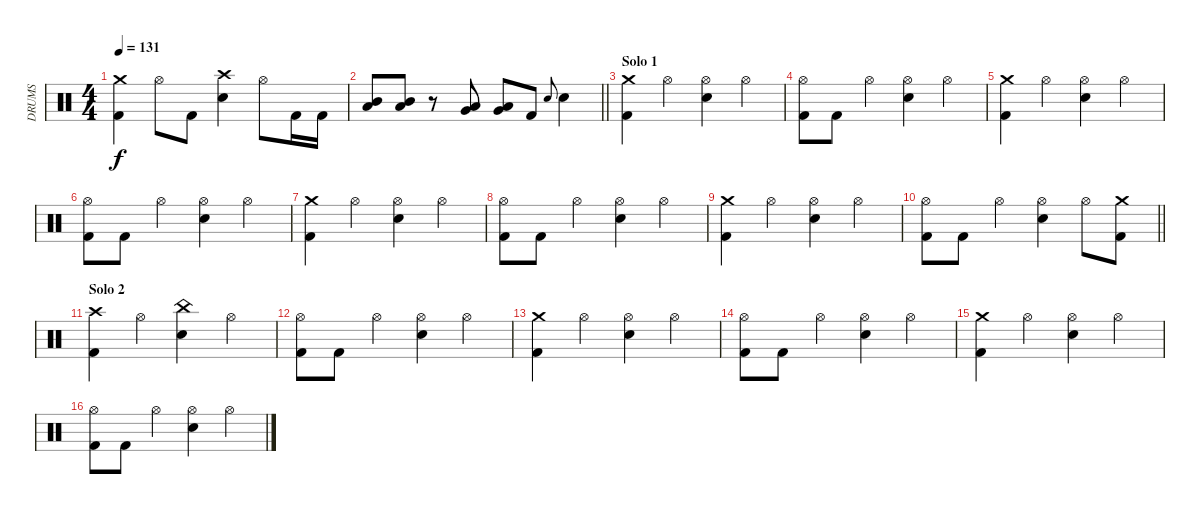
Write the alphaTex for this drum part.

\track ("DRUMS" "DRUMS") {instrument percussion}
\staff {score}
\articulation defaults
\ts (4 4)
\tempo 131
\clef neutral
\ks c
("Crash medium (hit)" "Kick (hit) 2").4{dy f} "Hi-Hat (open)".8 "Kick (hit) 2".8 ("Crash high (hit)" "Snare (hit) 2").4 "Hi-Hat (open)".8 "Kick (hit) 2".16 "Kick (hit) 2".16 |
\barLineRight lightlight
("Low Tom (hit)" "Mid Tom (hit)").8 ("Low Tom (hit)" "Mid Tom (hit)").8 r.8 ("Very Low Tom (hit)" "Low Tom (hit)").8 ("Very Low Tom (hit)" "Low Tom (hit)").8 "Kick (hit) 2".8 "Snare (hit) 2".8{gr onbeat} "Snare (hit) 2".4 |
\section ("" "Solo 1")
("Crash medium (hit)" "Kick (hit) 2").4 "Hi-Hat (open)".4 ("Hi-Hat (open)" "Snare (hit) 2").4 "Hi-Hat (open)".4 |
("Hi-Hat (open)" "Kick (hit) 2").8 "Kick (hit) 2".8 "Hi-Hat (open)".4 ("Hi-Hat (open)" "Snare (hit) 2").4 "Hi-Hat (open)".4 |
("Crash medium (hit)" "Kick (hit) 2").4 "Hi-Hat (open)".4 ("Hi-Hat (open)" "Snare (hit) 2").4 "Hi-Hat (open)".4 |
("Hi-Hat (open)" "Kick (hit) 2").8 "Kick (hit) 2".8 "Hi-Hat (open)".4 ("Hi-Hat (open)" "Snare (hit) 2").4 "Hi-Hat (open)".4 |
("Crash medium (hit)" "Kick (hit) 2").4 "Hi-Hat (open)".4 ("Hi-Hat (open)" "Snare (hit) 2").4 "Hi-Hat (open)".4 |
("Hi-Hat (open)" "Kick (hit) 2").8 "Kick (hit) 2".8 "Hi-Hat (open)".4 ("Hi-Hat (open)" "Snare (hit) 2").4 "Hi-Hat (open)".4 |
("Crash medium (hit)" "Kick (hit) 2").4 "Hi-Hat (open)".4 ("Hi-Hat (open)" "Snare (hit) 2").4 "Hi-Hat (open)".4 |
\barLineRight lightlight
("Hi-Hat (open)" "Kick (hit) 2").8 "Kick (hit) 2".8 "Hi-Hat (open)".4 ("Hi-Hat (open)" "Snare (hit) 2").4 "Hi-Hat (open)".8 ("Crash medium (hit)" "Kick (hit) 2").8 |
\section ("" "Solo 2")
("Crash high (hit)" "Kick (hit) 2").4 "Hi-Hat (open)".4 ("China (hit)" "Snare (hit) 2").4 "Hi-Hat (open)".4 |
("Hi-Hat (open)" "Kick (hit) 2").8 "Kick (hit) 2".8 "Hi-Hat (open)".4 ("Hi-Hat (open)" "Snare (hit) 2").4 "Hi-Hat (open)".4 |
("Crash medium (hit)" "Kick (hit) 2").4 "Hi-Hat (open)".4 ("Hi-Hat (open)" "Snare (hit) 2").4 "Hi-Hat (open)".4 |
("Hi-Hat (open)" "Kick (hit) 2").8 "Kick (hit) 2".8 "Hi-Hat (open)".4 ("Hi-Hat (open)" "Snare (hit) 2").4 "Hi-Hat (open)".4 |
("Crash medium (hit)" "Kick (hit) 2").4 "Hi-Hat (open)".4 ("Hi-Hat (open)" "Snare (hit) 2").4 "Hi-Hat (open)".4 |
("Hi-Hat (open)" "Kick (hit) 2").8 "Kick (hit) 2".8 "Hi-Hat (open)".4 ("Hi-Hat (open)" "Snare (hit) 2").4 "Hi-Hat (open)".4
